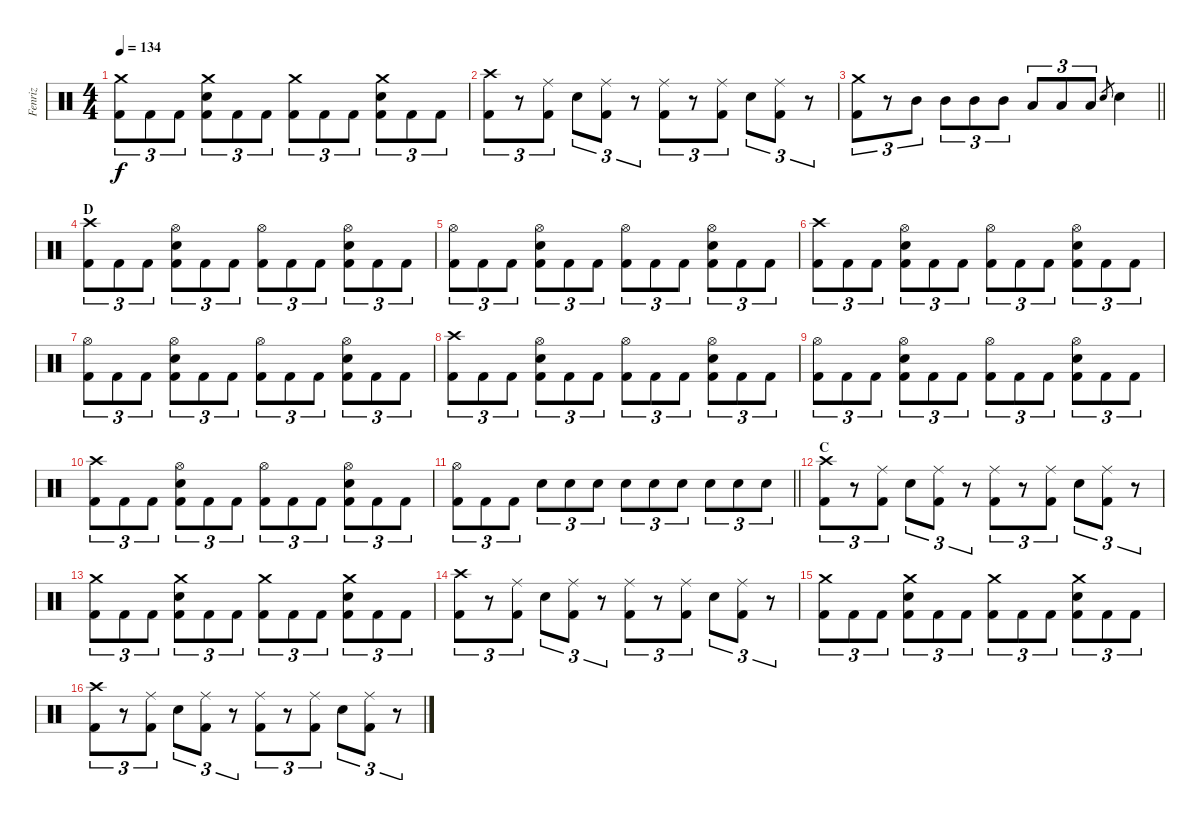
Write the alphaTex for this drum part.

\track ("Fenriz" "Fenriz") {instrument percussion}
\staff {score}
\articulation defaults
\ts (4 4)
\tempo 134
\clef neutral
\ks c
("Crash medium (hit)" "Kick (hit) 2").8{tu (3 2) dy f} "Kick (hit) 2".8{tu (3 2)} "Kick (hit) 2".8{tu (3 2)} ("Crash medium (hit)" "Snare (hit) 2" "Kick (hit) 2").8{tu (3 2)} "Kick (hit) 2".8{tu (3 2)} "Kick (hit) 2".8{tu (3 2)} ("Crash medium (hit)" "Kick (hit) 2").8{tu (3 2)} "Kick (hit) 2".8{tu (3 2)} "Kick (hit) 2".8{tu (3 2)} ("Crash medium (hit)" "Snare (hit) 2" "Kick (hit) 2").8{tu (3 2)} "Kick (hit) 2".8{tu (3 2)} "Kick (hit) 2".8{tu (3 2)} |
("Crash high (hit)" "Kick (hit) 2").8{tu (3 2)} r.8{tu (3 2)} ("Ride (middle)" "Kick (hit) 2").8{tu (3 2)} "Snare (hit) 2".8{tu (3 2)} ("Ride (middle)" "Kick (hit) 2").8{tu (3 2)} r.8{tu (3 2)} ("Ride (middle)" "Kick (hit) 2").8{tu (3 2)} r.8{tu (3 2)} ("Ride (middle)" "Kick (hit) 2").8{tu (3 2)} "Snare (hit) 2".8{tu (3 2)} ("Ride (middle)" "Kick (hit) 2").8{tu (3 2)} r.8{tu (3 2)} |
\barLineRight lightlight
("Crash medium (hit)" "Kick (hit) 2").8{tu (3 2)} r.8{tu (3 2)} "Mid Tom (hit)".8{tu (3 2)} "Mid Tom (hit)".8{tu (3 2)} "Mid Tom (hit)".8{tu (3 2)} "Mid Tom (hit)".8{tu (3 2)} "Low Tom (hit)".8{tu (3 2)} "Low Tom (hit)".8{tu (3 2)} "Low Tom (hit)".8{tu (3 2)} "Snare (hit) 2".8{gr} "Snare (hit) 2".4 |
\section ("" "D")
("Crash high (hit)" "Kick (hit) 2").8{tu (3 2)} "Kick (hit) 2".8{tu (3 2)} "Kick (hit) 2".8{tu (3 2)} ("Hi-Hat (open)" "Snare (hit) 2" "Kick (hit) 2").8{tu (3 2)} "Kick (hit) 2".8{tu (3 2)} "Kick (hit) 2".8{tu (3 2)} ("Hi-Hat (open)" "Kick (hit) 2").8{tu (3 2)} "Kick (hit) 2".8{tu (3 2)} "Kick (hit) 2".8{tu (3 2)} ("Hi-Hat (open)" "Snare (hit) 2" "Kick (hit) 2").8{tu (3 2)} "Kick (hit) 2".8{tu (3 2)} "Kick (hit) 2".8{tu (3 2)} |
("Hi-Hat (open)" "Kick (hit) 2").8{tu (3 2)} "Kick (hit) 2".8{tu (3 2)} "Kick (hit) 2".8{tu (3 2)} ("Hi-Hat (open)" "Snare (hit) 2" "Kick (hit) 2").8{tu (3 2)} "Kick (hit) 2".8{tu (3 2)} "Kick (hit) 2".8{tu (3 2)} ("Hi-Hat (open)" "Kick (hit) 2").8{tu (3 2)} "Kick (hit) 2".8{tu (3 2)} "Kick (hit) 2".8{tu (3 2)} ("Hi-Hat (open)" "Snare (hit) 2" "Kick (hit) 2").8{tu (3 2)} "Kick (hit) 2".8{tu (3 2)} "Kick (hit) 2".8{tu (3 2)} |
("Crash high (hit)" "Kick (hit) 2").8{tu (3 2)} "Kick (hit) 2".8{tu (3 2)} "Kick (hit) 2".8{tu (3 2)} ("Hi-Hat (open)" "Snare (hit) 2" "Kick (hit) 2").8{tu (3 2)} "Kick (hit) 2".8{tu (3 2)} "Kick (hit) 2".8{tu (3 2)} ("Hi-Hat (open)" "Kick (hit) 2").8{tu (3 2)} "Kick (hit) 2".8{tu (3 2)} "Kick (hit) 2".8{tu (3 2)} ("Hi-Hat (open)" "Snare (hit) 2" "Kick (hit) 2").8{tu (3 2)} "Kick (hit) 2".8{tu (3 2)} "Kick (hit) 2".8{tu (3 2)} |
("Hi-Hat (open)" "Kick (hit) 2").8{tu (3 2)} "Kick (hit) 2".8{tu (3 2)} "Kick (hit) 2".8{tu (3 2)} ("Hi-Hat (open)" "Snare (hit) 2" "Kick (hit) 2").8{tu (3 2)} "Kick (hit) 2".8{tu (3 2)} "Kick (hit) 2".8{tu (3 2)} ("Hi-Hat (open)" "Kick (hit) 2").8{tu (3 2)} "Kick (hit) 2".8{tu (3 2)} "Kick (hit) 2".8{tu (3 2)} ("Hi-Hat (open)" "Snare (hit) 2" "Kick (hit) 2").8{tu (3 2)} "Kick (hit) 2".8{tu (3 2)} "Kick (hit) 2".8{tu (3 2)} |
("Crash high (hit)" "Kick (hit) 2").8{tu (3 2)} "Kick (hit) 2".8{tu (3 2)} "Kick (hit) 2".8{tu (3 2)} ("Hi-Hat (open)" "Snare (hit) 2" "Kick (hit) 2").8{tu (3 2)} "Kick (hit) 2".8{tu (3 2)} "Kick (hit) 2".8{tu (3 2)} ("Hi-Hat (open)" "Kick (hit) 2").8{tu (3 2)} "Kick (hit) 2".8{tu (3 2)} "Kick (hit) 2".8{tu (3 2)} ("Hi-Hat (open)" "Snare (hit) 2" "Kick (hit) 2").8{tu (3 2)} "Kick (hit) 2".8{tu (3 2)} "Kick (hit) 2".8{tu (3 2)} |
("Hi-Hat (open)" "Kick (hit) 2").8{tu (3 2)} "Kick (hit) 2".8{tu (3 2)} "Kick (hit) 2".8{tu (3 2)} ("Hi-Hat (open)" "Snare (hit) 2" "Kick (hit) 2").8{tu (3 2)} "Kick (hit) 2".8{tu (3 2)} "Kick (hit) 2".8{tu (3 2)} ("Hi-Hat (open)" "Kick (hit) 2").8{tu (3 2)} "Kick (hit) 2".8{tu (3 2)} "Kick (hit) 2".8{tu (3 2)} ("Hi-Hat (open)" "Snare (hit) 2" "Kick (hit) 2").8{tu (3 2)} "Kick (hit) 2".8{tu (3 2)} "Kick (hit) 2".8{tu (3 2)} |
("Crash high (hit)" "Kick (hit) 2").8{tu (3 2)} "Kick (hit) 2".8{tu (3 2)} "Kick (hit) 2".8{tu (3 2)} ("Hi-Hat (open)" "Snare (hit) 2" "Kick (hit) 2").8{tu (3 2)} "Kick (hit) 2".8{tu (3 2)} "Kick (hit) 2".8{tu (3 2)} ("Hi-Hat (open)" "Kick (hit) 2").8{tu (3 2)} "Kick (hit) 2".8{tu (3 2)} "Kick (hit) 2".8{tu (3 2)} ("Hi-Hat (open)" "Snare (hit) 2" "Kick (hit) 2").8{tu (3 2)} "Kick (hit) 2".8{tu (3 2)} "Kick (hit) 2".8{tu (3 2)} |
\barLineRight lightlight
("Hi-Hat (open)" "Kick (hit) 2").8{tu (3 2)} "Kick (hit) 2".8{tu (3 2)} "Kick (hit) 2".8{tu (3 2)} "Snare (hit) 2".8{tu (3 2)} "Snare (hit) 2".8{tu (3 2)} "Snare (hit) 2".8{tu (3 2)} "Snare (hit) 2".8{tu (3 2)} "Snare (hit) 2".8{tu (3 2)} "Snare (hit) 2".8{tu (3 2)} "Snare (hit) 2".8{tu (3 2)} "Snare (hit) 2".8{tu (3 2)} "Snare (hit) 2".8{tu (3 2)} |
\section ("" "C")
("Crash high (hit)" "Kick (hit) 2").8{tu (3 2)} r.8{tu (3 2)} ("Ride (middle)" "Kick (hit) 2").8{tu (3 2)} "Snare (hit) 2".8{tu (3 2)} ("Ride (middle)" "Kick (hit) 2").8{tu (3 2)} r.8{tu (3 2)} ("Ride (middle)" "Kick (hit) 2").8{tu (3 2)} r.8{tu (3 2)} ("Ride (middle)" "Kick (hit) 2").8{tu (3 2)} "Snare (hit) 2".8{tu (3 2)} ("Ride (middle)" "Kick (hit) 2").8{tu (3 2)} r.8{tu (3 2)} |
("Crash medium (hit)" "Kick (hit) 2").8{tu (3 2)} "Kick (hit) 2".8{tu (3 2)} "Kick (hit) 2".8{tu (3 2)} ("Crash medium (hit)" "Snare (hit) 2" "Kick (hit) 2").8{tu (3 2)} "Kick (hit) 2".8{tu (3 2)} "Kick (hit) 2".8{tu (3 2)} ("Crash medium (hit)" "Kick (hit) 2").8{tu (3 2)} "Kick (hit) 2".8{tu (3 2)} "Kick (hit) 2".8{tu (3 2)} ("Crash medium (hit)" "Snare (hit) 2" "Kick (hit) 2").8{tu (3 2)} "Kick (hit) 2".8{tu (3 2)} "Kick (hit) 2".8{tu (3 2)} |
("Crash high (hit)" "Kick (hit) 2").8{tu (3 2)} r.8{tu (3 2)} ("Ride (middle)" "Kick (hit) 2").8{tu (3 2)} "Snare (hit) 2".8{tu (3 2)} ("Ride (middle)" "Kick (hit) 2").8{tu (3 2)} r.8{tu (3 2)} ("Ride (middle)" "Kick (hit) 2").8{tu (3 2)} r.8{tu (3 2)} ("Ride (middle)" "Kick (hit) 2").8{tu (3 2)} "Snare (hit) 2".8{tu (3 2)} ("Ride (middle)" "Kick (hit) 2").8{tu (3 2)} r.8{tu (3 2)} |
("Crash medium (hit)" "Kick (hit) 2").8{tu (3 2)} "Kick (hit) 2".8{tu (3 2)} "Kick (hit) 2".8{tu (3 2)} ("Crash medium (hit)" "Snare (hit) 2" "Kick (hit) 2").8{tu (3 2)} "Kick (hit) 2".8{tu (3 2)} "Kick (hit) 2".8{tu (3 2)} ("Crash medium (hit)" "Kick (hit) 2").8{tu (3 2)} "Kick (hit) 2".8{tu (3 2)} "Kick (hit) 2".8{tu (3 2)} ("Crash medium (hit)" "Snare (hit) 2" "Kick (hit) 2").8{tu (3 2)} "Kick (hit) 2".8{tu (3 2)} "Kick (hit) 2".8{tu (3 2)} |
("Crash high (hit)" "Kick (hit) 2").8{tu (3 2)} r.8{tu (3 2)} ("Ride (middle)" "Kick (hit) 2").8{tu (3 2)} "Snare (hit) 2".8{tu (3 2)} ("Ride (middle)" "Kick (hit) 2").8{tu (3 2)} r.8{tu (3 2)} ("Ride (middle)" "Kick (hit) 2").8{tu (3 2)} r.8{tu (3 2)} ("Ride (middle)" "Kick (hit) 2").8{tu (3 2)} "Snare (hit) 2".8{tu (3 2)} ("Ride (middle)" "Kick (hit) 2").8{tu (3 2)} r.8{tu (3 2)}
